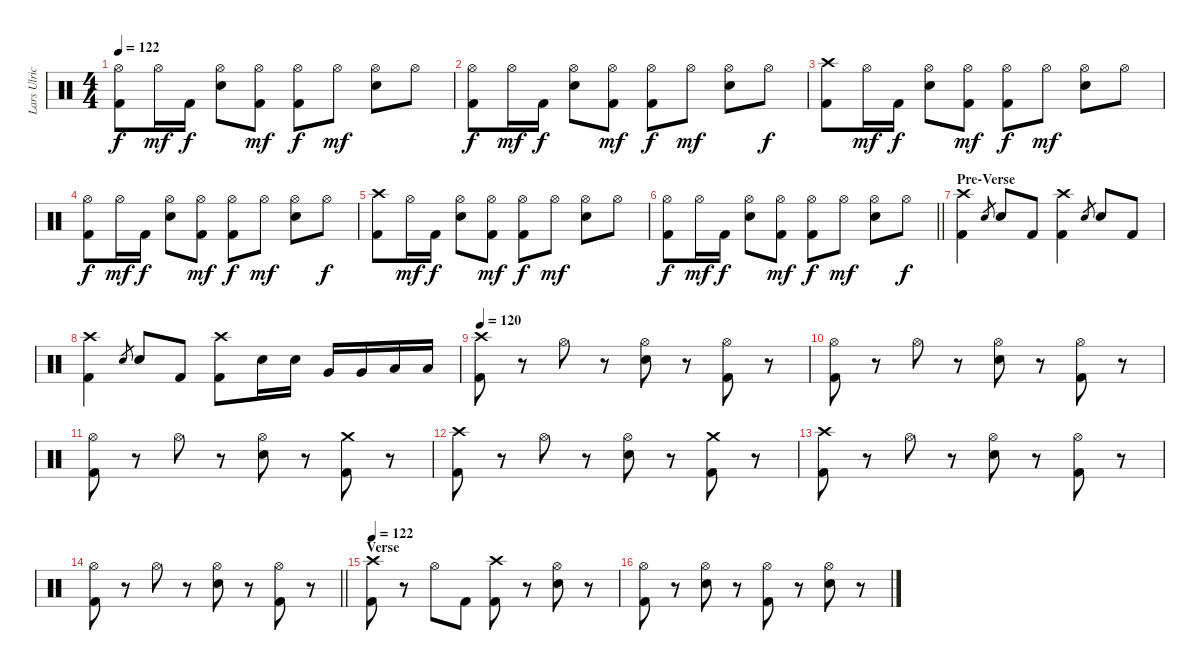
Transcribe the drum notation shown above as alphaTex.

\track ("Lars Ulrich" "Lars Ulric") {instrument percussion}
\staff {score}
\articulation defaults
\ts (4 4)
\tempo 122
\clef neutral
\ks c
("Hi-Hat (open)" "Kick (hit) 2").8{dy f} "Hi-Hat (open)".16{dy mf} "Kick (hit) 2".16{dy f} ("Hi-Hat (open)" "Snare (hit) 2").8 ("Hi-Hat (open)" "Kick (hit) 2").8{dy mf} ("Hi-Hat (open)" "Kick (hit) 2").8{dy f} "Hi-Hat (open)".8{dy mf} ("Hi-Hat (open)" "Snare (hit) 2").8 "Hi-Hat (open)".8 |
("Hi-Hat (open)" "Kick (hit) 2").8{dy f} "Hi-Hat (open)".16{dy mf} "Kick (hit) 2".16{dy f} ("Hi-Hat (open)" "Snare (hit) 2").8 ("Hi-Hat (open)" "Kick (hit) 2").8{dy mf} ("Hi-Hat (open)" "Kick (hit) 2").8{dy f} "Hi-Hat (open)".8{dy mf} ("Hi-Hat (open)" "Snare (hit) 2").8 "Hi-Hat (open)".8{dy f} |
("Crash high (hit)" "Kick (hit) 2").8 "Hi-Hat (open)".16{dy mf} "Kick (hit) 2".16{dy f} ("Hi-Hat (open)" "Snare (hit) 2").8 ("Hi-Hat (open)" "Kick (hit) 2").8{dy mf} ("Hi-Hat (open)" "Kick (hit) 2").8{dy f} "Hi-Hat (open)".8{dy mf} ("Hi-Hat (open)" "Snare (hit) 2").8 "Hi-Hat (open)".8 |
("Hi-Hat (open)" "Kick (hit) 2").8{dy f} "Hi-Hat (open)".16{dy mf} "Kick (hit) 2".16{dy f} ("Hi-Hat (open)" "Snare (hit) 2").8 ("Hi-Hat (open)" "Kick (hit) 2").8{dy mf} ("Hi-Hat (open)" "Kick (hit) 2").8{dy f} "Hi-Hat (open)".8{dy mf} ("Hi-Hat (open)" "Snare (hit) 2").8 "Hi-Hat (open)".8{dy f} |
("Crash high (hit)" "Kick (hit) 2").8 "Hi-Hat (open)".16{dy mf} "Kick (hit) 2".16{dy f} ("Hi-Hat (open)" "Snare (hit) 2").8 ("Hi-Hat (open)" "Kick (hit) 2").8{dy mf} ("Hi-Hat (open)" "Kick (hit) 2").8{dy f} "Hi-Hat (open)".8{dy mf} ("Hi-Hat (open)" "Snare (hit) 2").8 "Hi-Hat (open)".8 |
\barLineRight lightlight
("Hi-Hat (open)" "Kick (hit) 2").8{dy f} "Hi-Hat (open)".16{dy mf} "Kick (hit) 2".16{dy f} ("Hi-Hat (open)" "Snare (hit) 2").8 ("Hi-Hat (open)" "Kick (hit) 2").8{dy mf} ("Hi-Hat (open)" "Kick (hit) 2").8{dy f} "Hi-Hat (open)".8{dy mf} ("Hi-Hat (open)" "Snare (hit) 2").8 "Hi-Hat (open)".8{dy f} |
\section ("" "Pre-Verse")
("Crash high (hit)" "Kick (hit) 2").4 "Snare (hit) 2".8{gr} "Snare (hit) 2".8 "Kick (hit) 2".8 ("Crash high (hit)" "Kick (hit) 2").4 "Snare (hit) 2".8{gr} "Snare (hit) 2".8 "Kick (hit) 2".8 |
("Crash high (hit)" "Kick (hit) 2").4 "Snare (hit) 2".8{gr} "Snare (hit) 2".8 "Kick (hit) 2".8 ("Crash high (hit)" "Kick (hit) 2").8 "Snare (hit) 2".16 "Snare (hit) 2".16 "Very Low Tom (hit)".16 "Very Low Tom (hit)".16 "Low Floor Tom (hit)".16 "Low Floor Tom (hit)".16 |
\tempo 120
("Crash high (hit)" "Kick (hit) 2").8 r.8 "Hi-Hat (open)".8 r.8 ("Hi-Hat (open)" "Snare (hit) 2").8 r.8 ("Hi-Hat (open)" "Kick (hit) 2").8 r.8 |
("Hi-Hat (open)" "Kick (hit) 2").8 r.8 "Hi-Hat (open)".8 r.8 ("Hi-Hat (open)" "Snare (hit) 2").8 r.8 ("Hi-Hat (open)" "Kick (hit) 2").8 r.8 |
("Hi-Hat (open)" "Kick (hit) 2").8 r.8 "Hi-Hat (open)".8 r.8 ("Hi-Hat (open)" "Snare (hit) 2").8 r.8 ("Crash medium (hit)" "Kick (hit) 2").8 r.8 |
("Crash high (hit)" "Kick (hit) 2").8 r.8 "Hi-Hat (open)".8 r.8 ("Hi-Hat (open)" "Snare (hit) 2").8 r.8 ("Crash medium (hit)" "Kick (hit) 2").8 r.8 |
("Crash high (hit)" "Kick (hit) 2").8 r.8 "Hi-Hat (open)".8 r.8 ("Hi-Hat (open)" "Snare (hit) 2").8 r.8 ("Hi-Hat (open)" "Kick (hit) 2").8 r.8 |
\barLineRight lightlight
("Hi-Hat (open)" "Kick (hit) 2").8 r.8 "Hi-Hat (open)".8 r.8 ("Hi-Hat (open)" "Snare (hit) 2").8 r.8 ("Hi-Hat (open)" "Kick (hit) 2").8 r.8 |
\section ("" "Verse")
\tempo 122
("Crash high (hit)" "Kick (hit) 2").8 r.8 "Hi-Hat (open)".8 "Kick (hit) 2".8 ("Crash high (hit)" "Kick (hit) 2").8 r.8 ("Hi-Hat (open)" "Snare (hit) 2").8 r.8 |
("Hi-Hat (open)" "Kick (hit) 2").8 r.8 ("Hi-Hat (open)" "Snare (hit) 2").8 r.8 ("Hi-Hat (open)" "Kick (hit) 2").8 r.8 ("Hi-Hat (open)" "Snare (hit) 2").8 r.8
